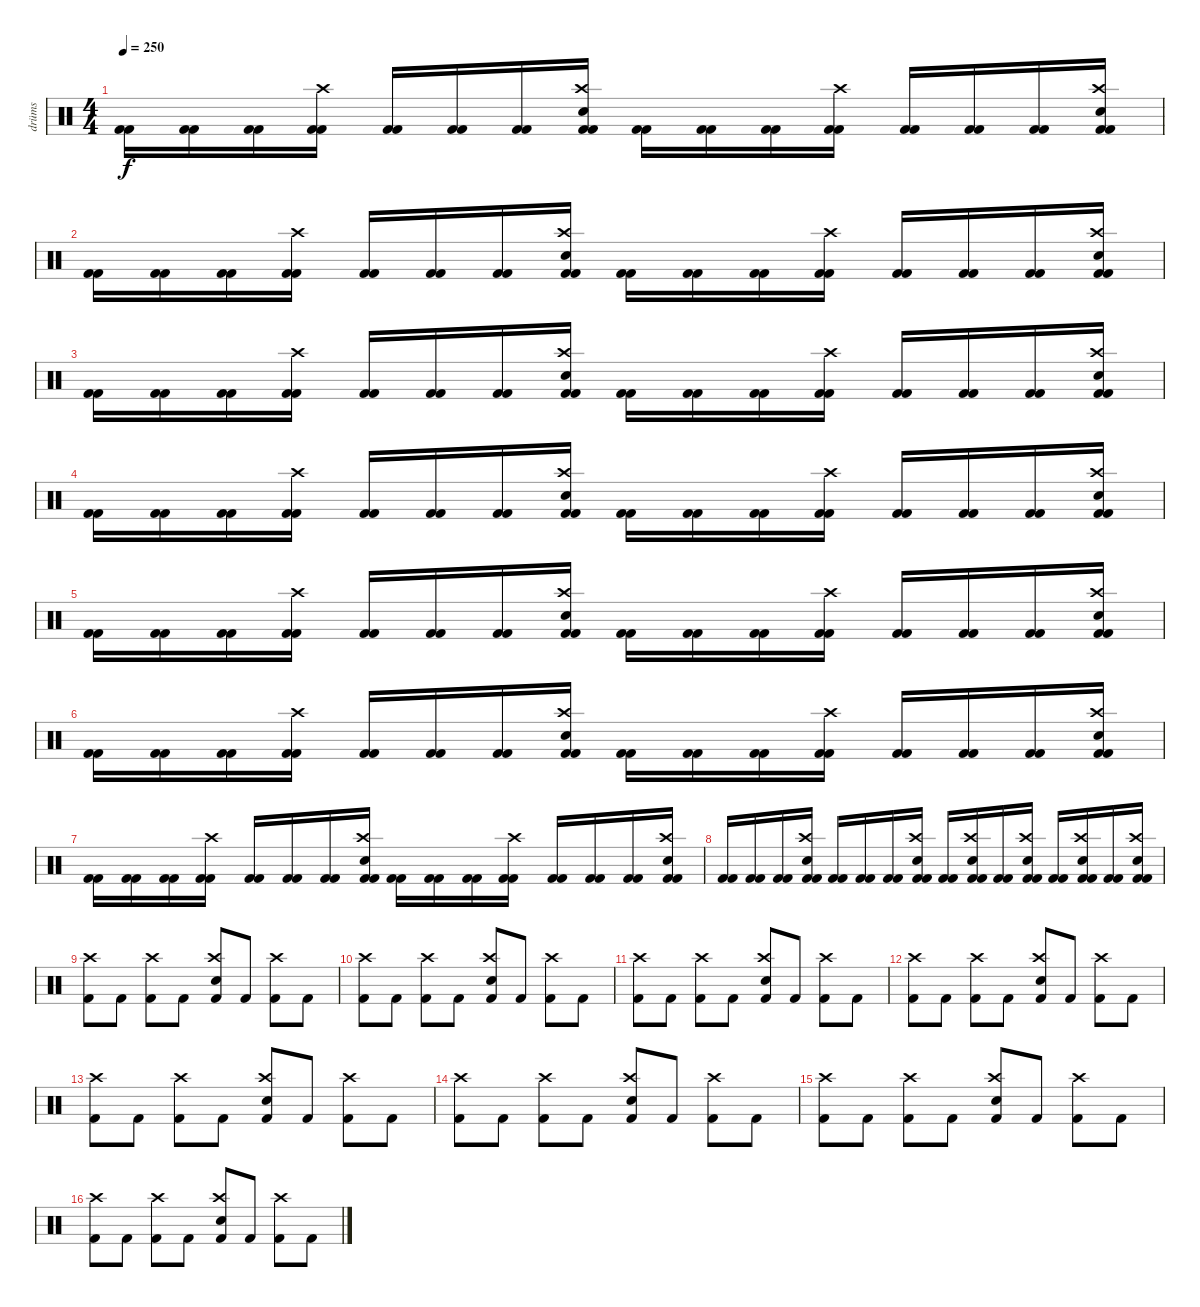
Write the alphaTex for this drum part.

\track ("drüms" "drüms") {instrument percussion}
\staff {score}
\articulation defaults
\ts (4 4)
\tempo 250
\clef neutral
\ks c
("Kick (hit) 2" "Kick (hit) 2").16{dy f} ("Kick (hit) 2" "Kick (hit) 2").16 ("Kick (hit) 2" "Kick (hit) 2").16 ("Crash high (hit)" "Kick (hit) 2" "Kick (hit) 2").16 ("Kick (hit) 2" "Kick (hit) 2").16 ("Kick (hit) 2" "Kick (hit) 2").16 ("Kick (hit) 2" "Kick (hit) 2").16 ("Electric Snare (hit)" "Crash high (hit)" "Kick (hit) 2" "Kick (hit) 2").16 ("Kick (hit) 2" "Kick (hit) 2").16 ("Kick (hit) 2" "Kick (hit) 2").16 ("Kick (hit) 2" "Kick (hit) 2").16 ("Crash high (hit)" "Kick (hit) 2" "Kick (hit) 2").16 ("Kick (hit) 2" "Kick (hit) 2").16 ("Kick (hit) 2" "Kick (hit) 2").16 ("Kick (hit) 2" "Kick (hit) 2").16 ("Electric Snare (hit)" "Crash high (hit)" "Kick (hit) 2" "Kick (hit) 2").16 |
("Kick (hit) 2" "Kick (hit) 2").16 ("Kick (hit) 2" "Kick (hit) 2").16 ("Kick (hit) 2" "Kick (hit) 2").16 ("Crash high (hit)" "Kick (hit) 2" "Kick (hit) 2").16 ("Kick (hit) 2" "Kick (hit) 2").16 ("Kick (hit) 2" "Kick (hit) 2").16 ("Kick (hit) 2" "Kick (hit) 2").16 ("Electric Snare (hit)" "Crash high (hit)" "Kick (hit) 2" "Kick (hit) 2").16 ("Kick (hit) 2" "Kick (hit) 2").16 ("Kick (hit) 2" "Kick (hit) 2").16 ("Kick (hit) 2" "Kick (hit) 2").16 ("Crash high (hit)" "Kick (hit) 2" "Kick (hit) 2").16 ("Kick (hit) 2" "Kick (hit) 2").16 ("Kick (hit) 2" "Kick (hit) 2").16 ("Kick (hit) 2" "Kick (hit) 2").16 ("Electric Snare (hit)" "Crash high (hit)" "Kick (hit) 2" "Kick (hit) 2").16 |
("Kick (hit) 2" "Kick (hit) 2").16 ("Kick (hit) 2" "Kick (hit) 2").16 ("Kick (hit) 2" "Kick (hit) 2").16 ("Crash high (hit)" "Kick (hit) 2" "Kick (hit) 2").16 ("Kick (hit) 2" "Kick (hit) 2").16 ("Kick (hit) 2" "Kick (hit) 2").16 ("Kick (hit) 2" "Kick (hit) 2").16 ("Electric Snare (hit)" "Crash high (hit)" "Kick (hit) 2" "Kick (hit) 2").16 ("Kick (hit) 2" "Kick (hit) 2").16 ("Kick (hit) 2" "Kick (hit) 2").16 ("Kick (hit) 2" "Kick (hit) 2").16 ("Crash high (hit)" "Kick (hit) 2" "Kick (hit) 2").16 ("Kick (hit) 2" "Kick (hit) 2").16 ("Kick (hit) 2" "Kick (hit) 2").16 ("Kick (hit) 2" "Kick (hit) 2").16 ("Electric Snare (hit)" "Crash high (hit)" "Kick (hit) 2" "Kick (hit) 2").16 |
("Kick (hit) 2" "Kick (hit) 2").16 ("Kick (hit) 2" "Kick (hit) 2").16 ("Kick (hit) 2" "Kick (hit) 2").16 ("Crash high (hit)" "Kick (hit) 2" "Kick (hit) 2").16 ("Kick (hit) 2" "Kick (hit) 2").16 ("Kick (hit) 2" "Kick (hit) 2").16 ("Kick (hit) 2" "Kick (hit) 2").16 ("Electric Snare (hit)" "Crash high (hit)" "Kick (hit) 2" "Kick (hit) 2").16 ("Kick (hit) 2" "Kick (hit) 2").16 ("Kick (hit) 2" "Kick (hit) 2").16 ("Kick (hit) 2" "Kick (hit) 2").16 ("Crash high (hit)" "Kick (hit) 2" "Kick (hit) 2").16 ("Kick (hit) 2" "Kick (hit) 2").16 ("Kick (hit) 2" "Kick (hit) 2").16 ("Kick (hit) 2" "Kick (hit) 2").16 ("Electric Snare (hit)" "Crash high (hit)" "Kick (hit) 2" "Kick (hit) 2").16 |
("Kick (hit) 2" "Kick (hit) 2").16 ("Kick (hit) 2" "Kick (hit) 2").16 ("Kick (hit) 2" "Kick (hit) 2").16 ("Crash high (hit)" "Kick (hit) 2" "Kick (hit) 2").16 ("Kick (hit) 2" "Kick (hit) 2").16 ("Kick (hit) 2" "Kick (hit) 2").16 ("Kick (hit) 2" "Kick (hit) 2").16 ("Electric Snare (hit)" "Crash high (hit)" "Kick (hit) 2" "Kick (hit) 2").16 ("Kick (hit) 2" "Kick (hit) 2").16 ("Kick (hit) 2" "Kick (hit) 2").16 ("Kick (hit) 2" "Kick (hit) 2").16 ("Crash high (hit)" "Kick (hit) 2" "Kick (hit) 2").16 ("Kick (hit) 2" "Kick (hit) 2").16 ("Kick (hit) 2" "Kick (hit) 2").16 ("Kick (hit) 2" "Kick (hit) 2").16 ("Electric Snare (hit)" "Crash high (hit)" "Kick (hit) 2" "Kick (hit) 2").16 |
("Kick (hit) 2" "Kick (hit) 2").16 ("Kick (hit) 2" "Kick (hit) 2").16 ("Kick (hit) 2" "Kick (hit) 2").16 ("Crash high (hit)" "Kick (hit) 2" "Kick (hit) 2").16 ("Kick (hit) 2" "Kick (hit) 2").16 ("Kick (hit) 2" "Kick (hit) 2").16 ("Kick (hit) 2" "Kick (hit) 2").16 ("Electric Snare (hit)" "Crash high (hit)" "Kick (hit) 2" "Kick (hit) 2").16 ("Kick (hit) 2" "Kick (hit) 2").16 ("Kick (hit) 2" "Kick (hit) 2").16 ("Kick (hit) 2" "Kick (hit) 2").16 ("Crash high (hit)" "Kick (hit) 2" "Kick (hit) 2").16 ("Kick (hit) 2" "Kick (hit) 2").16 ("Kick (hit) 2" "Kick (hit) 2").16 ("Kick (hit) 2" "Kick (hit) 2").16 ("Electric Snare (hit)" "Crash high (hit)" "Kick (hit) 2" "Kick (hit) 2").16 |
("Kick (hit) 2" "Kick (hit) 2").16 ("Kick (hit) 2" "Kick (hit) 2").16 ("Kick (hit) 2" "Kick (hit) 2").16 ("Crash high (hit)" "Kick (hit) 2" "Kick (hit) 2").16 ("Kick (hit) 2" "Kick (hit) 2").16 ("Kick (hit) 2" "Kick (hit) 2").16 ("Kick (hit) 2" "Kick (hit) 2").16 ("Electric Snare (hit)" "Crash high (hit)" "Kick (hit) 2" "Kick (hit) 2").16 ("Kick (hit) 2" "Kick (hit) 2").16 ("Kick (hit) 2" "Kick (hit) 2").16 ("Kick (hit) 2" "Kick (hit) 2").16 ("Crash high (hit)" "Kick (hit) 2" "Kick (hit) 2").16 ("Kick (hit) 2" "Kick (hit) 2").16 ("Kick (hit) 2" "Kick (hit) 2").16 ("Kick (hit) 2" "Kick (hit) 2").16 ("Electric Snare (hit)" "Crash high (hit)" "Kick (hit) 2" "Kick (hit) 2").16 |
("Kick (hit) 2" "Kick (hit) 2").16 ("Kick (hit) 2" "Kick (hit) 2").16 ("Kick (hit) 2" "Kick (hit) 2").16 ("Electric Snare (hit)" "Crash high (hit)" "Kick (hit) 2" "Kick (hit) 2").16 ("Kick (hit) 2" "Kick (hit) 2").16 ("Kick (hit) 2" "Kick (hit) 2").16 ("Kick (hit) 2" "Kick (hit) 2").16 ("Electric Snare (hit)" "Crash high (hit)" "Kick (hit) 2" "Kick (hit) 2").16 ("Kick (hit) 2" "Kick (hit) 2").16 ("Electric Snare (hit)" "Crash high (hit)" "Kick (hit) 2" "Kick (hit) 2").16 ("Kick (hit) 2" "Kick (hit) 2").16 ("Crash high (hit)" "Electric Snare (hit)" "Kick (hit) 2" "Kick (hit) 2").16 ("Kick (hit) 2" "Kick (hit) 2").16 ("Electric Snare (hit)" "Crash high (hit)" "Kick (hit) 2" "Kick (hit) 2").16 ("Kick (hit) 2" "Kick (hit) 2").16 ("Electric Snare (hit)" "Crash high (hit)" "Kick (hit) 2" "Kick (hit) 2").16 |
("Crash high (hit)" "Kick (hit) 2").8 "Kick (hit) 2".8 ("Crash high (hit)" "Kick (hit) 2").8 "Kick (hit) 2".8 ("Electric Snare (hit)" "Crash high (hit)" "Kick (hit) 2").8 "Kick (hit) 2".8 ("Crash high (hit)" "Kick (hit) 2").8 "Kick (hit) 2".8 |
("Crash high (hit)" "Kick (hit) 2").8 "Kick (hit) 2".8 ("Crash high (hit)" "Kick (hit) 2").8 "Kick (hit) 2".8 ("Electric Snare (hit)" "Crash high (hit)" "Kick (hit) 2").8 "Kick (hit) 2".8 ("Crash high (hit)" "Kick (hit) 2").8 "Kick (hit) 2".8 |
("Crash high (hit)" "Kick (hit) 2").8 "Kick (hit) 2".8 ("Crash high (hit)" "Kick (hit) 2").8 "Kick (hit) 2".8 ("Electric Snare (hit)" "Crash high (hit)" "Kick (hit) 2").8 "Kick (hit) 2".8 ("Crash high (hit)" "Kick (hit) 2").8 "Kick (hit) 2".8 |
("Crash high (hit)" "Kick (hit) 2").8 "Kick (hit) 2".8 ("Crash high (hit)" "Kick (hit) 2").8 "Kick (hit) 2".8 ("Electric Snare (hit)" "Crash high (hit)" "Kick (hit) 2").8 "Kick (hit) 2".8 ("Crash high (hit)" "Kick (hit) 2").8 "Kick (hit) 2".8 |
("Crash high (hit)" "Kick (hit) 2").8 "Kick (hit) 2".8 ("Crash high (hit)" "Kick (hit) 2").8 "Kick (hit) 2".8 ("Electric Snare (hit)" "Crash high (hit)" "Kick (hit) 2").8 "Kick (hit) 2".8 ("Crash high (hit)" "Kick (hit) 2").8 "Kick (hit) 2".8 |
("Crash high (hit)" "Kick (hit) 2").8 "Kick (hit) 2".8 ("Crash high (hit)" "Kick (hit) 2").8 "Kick (hit) 2".8 ("Electric Snare (hit)" "Crash high (hit)" "Kick (hit) 2").8 "Kick (hit) 2".8 ("Crash high (hit)" "Kick (hit) 2").8 "Kick (hit) 2".8 |
("Crash high (hit)" "Kick (hit) 2").8 "Kick (hit) 2".8 ("Crash high (hit)" "Kick (hit) 2").8 "Kick (hit) 2".8 ("Electric Snare (hit)" "Crash high (hit)" "Kick (hit) 2").8 "Kick (hit) 2".8 ("Crash high (hit)" "Kick (hit) 2").8 "Kick (hit) 2".8 |
("Crash high (hit)" "Kick (hit) 2").8 "Kick (hit) 2".8 ("Crash high (hit)" "Kick (hit) 2").8 "Kick (hit) 2".8 ("Electric Snare (hit)" "Crash high (hit)" "Kick (hit) 2").8 "Kick (hit) 2".8 ("Crash high (hit)" "Kick (hit) 2").8 "Kick (hit) 2".8
